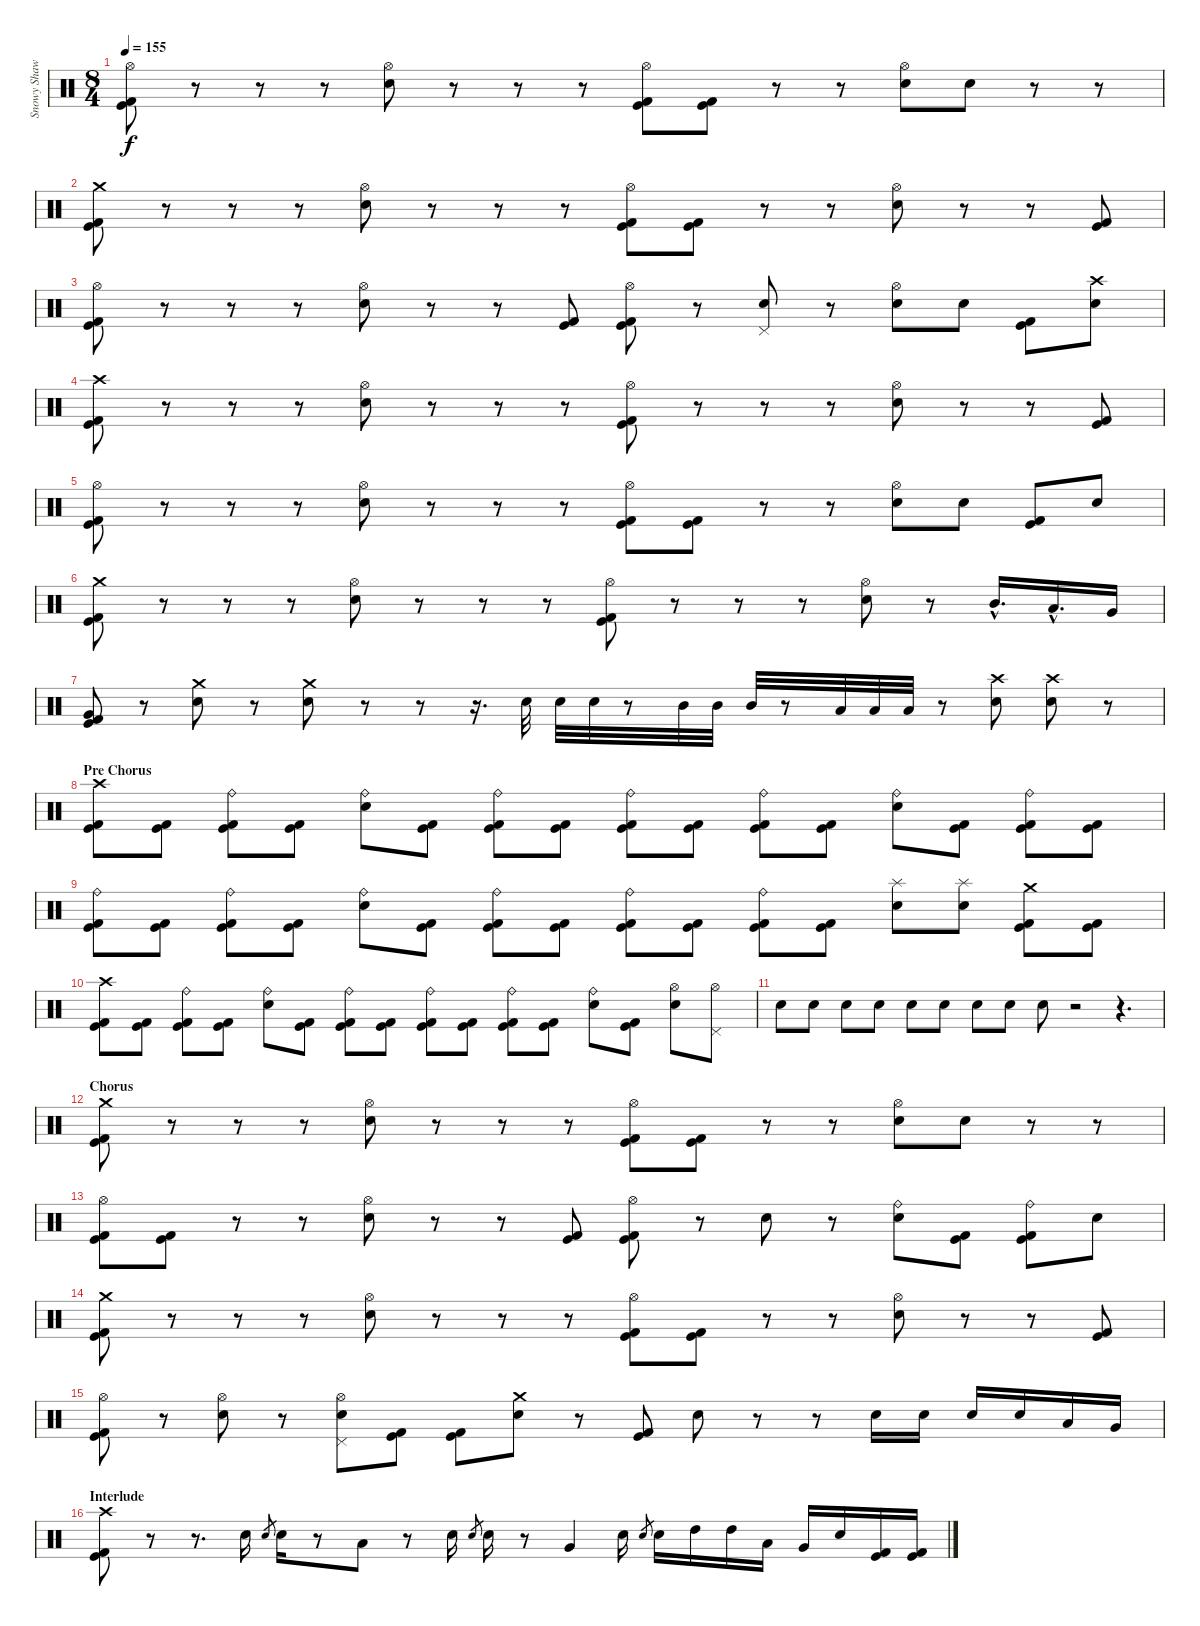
\track ("Snowy Shaw" "Snowy Shaw") {instrument percussion}
\staff {score}
\articulation defaults
\ts (8 4)
\tempo 155
\clef neutral
\ks c
("Hi-Hat (open)" "Kick (hit)" "Kick (hit) 2").8{dy f} r.8 r.8 r.8 ("Hi-Hat (open)" "Electric Snare (hit)").8 r.8 r.8 r.8 ("Hi-Hat (open)" "Kick (hit) 2" "Kick (hit)").8 ("Kick (hit) 2" "Kick (hit)").8 r.8 r.8 ("Hi-Hat (open)" "Electric Snare (hit)").8 "Electric Snare (hit)".8 r.8 r.8 |
("Crash medium (hit)" "Kick (hit)" "Kick (hit) 2").8 r.8 r.8 r.8 ("Hi-Hat (open)" "Electric Snare (hit)").8 r.8 r.8 r.8 ("Hi-Hat (open)" "Kick (hit) 2" "Kick (hit)").8 ("Kick (hit) 2" "Kick (hit)").8 r.8 r.8 ("Hi-Hat (open)" "Electric Snare (hit)").8 r.8 r.8 ("Kick (hit) 2" "Kick (hit)").8 |
("Hi-Hat (open)" "Kick (hit)" "Kick (hit) 2").8 r.8 r.8 r.8 ("Hi-Hat (open)" "Electric Snare (hit)").8 r.8 r.8 ("Kick (hit) 2" "Kick (hit)").8 ("Hi-Hat (open)" "Kick (hit) 2" "Kick (hit)").8 r.8 ("Pedal Hi-Hat (hit)" "Electric Snare (hit)").8 r.8 ("Hi-Hat (open)" "Electric Snare (hit)").8 "Electric Snare (hit)".8 ("Kick (hit) 2" "Kick (hit)").8 ("Crash high (hit)" "Electric Snare (hit)").8 |
("Crash high (hit)" "Kick (hit)" "Kick (hit) 2").8 r.8 r.8 r.8 ("Hi-Hat (open)" "Electric Snare (hit)").8 r.8 r.8 r.8 ("Hi-Hat (open)" "Kick (hit) 2" "Kick (hit)").8 r.8 r.8 r.8 ("Hi-Hat (open)" "Electric Snare (hit)").8 r.8 r.8 ("Kick (hit) 2" "Kick (hit)").8 |
("Hi-Hat (open)" "Kick (hit)" "Kick (hit) 2").8 r.8 r.8 r.8 ("Hi-Hat (open)" "Electric Snare (hit)").8 r.8 r.8 r.8 ("Hi-Hat (open)" "Kick (hit) 2" "Kick (hit)").8 ("Kick (hit) 2" "Kick (hit)").8 r.8 r.8 ("Hi-Hat (open)" "Electric Snare (hit)").8 "Electric Snare (hit)".8 ("Kick (hit) 2" "Kick (hit)").8 "Electric Snare (hit)".8 |
("Crash medium (hit)" "Kick (hit)" "Kick (hit) 2").8 r.8 r.8 r.8 ("Hi-Hat (open)" "Electric Snare (hit)").8 r.8 r.8 r.8 ("Hi-Hat (open)" "Kick (hit) 2" "Kick (hit)").8 r.8 r.8 r.8 ("Hi-Hat (open)" "Electric Snare (hit)").8 r.8 "Mid Tom (hit)"{hac}.16{d} "Low Tom (hit)"{hac}.16{d} "Very Low Tom (hit)".16 |
("Very Low Tom (hit)" "Kick (hit) 2" "Kick (hit)").8 r.8 ("Crash medium (hit)" "Electric Snare (hit)").8 r.8 ("Crash medium (hit)" "Electric Snare (hit)").8 r.8 r.8 r.16{d} "Electric Snare (hit)".32 "Electric Snare (hit)".32 "Electric Snare (hit)".32 r.8 "Mid Tom (hit)".32 "Mid Tom (hit)".32 "Mid Tom (hit)".32 r.8 "Low Tom (hit)".32 "Low Tom (hit)".32 "Low Tom (hit)".32 r.8 ("Crash high (hit)" "Electric Snare (hit)").8 ("Crash high (hit)" "Electric Snare (hit)").8 r.8 |
\section ("" "Pre Chorus")
("Crash high (hit)" "Kick (hit) 2" "Kick (hit)").8 ("Kick (hit) 2" "Kick (hit)").8 ("Ride (bell)" "Kick (hit) 2" "Kick (hit)").8 ("Kick (hit) 2" "Kick (hit)").8 ("Ride (bell)" "Electric Snare (hit)").8 ("Kick (hit) 2" "Kick (hit)").8 ("Ride (bell)" "Kick (hit) 2" "Kick (hit)").8 ("Kick (hit) 2" "Kick (hit)").8 ("Ride (bell)" "Kick (hit) 2" "Kick (hit)").8 ("Kick (hit) 2" "Kick (hit)").8 ("Ride (bell)" "Kick (hit) 2" "Kick (hit)").8 ("Kick (hit) 2" "Kick (hit)").8 ("Ride (bell)" "Electric Snare (hit)").8 ("Kick (hit) 2" "Kick (hit)").8 ("Ride (bell)" "Kick (hit) 2" "Kick (hit)").8 ("Kick (hit) 2" "Kick (hit)").8 |
("Ride (bell)" "Kick (hit) 2" "Kick (hit)").8 ("Kick (hit) 2" "Kick (hit)").8 ("Ride (bell)" "Kick (hit) 2" "Kick (hit)").8 ("Kick (hit) 2" "Kick (hit)").8 ("Ride (bell)" "Electric Snare (hit)").8 ("Kick (hit) 2" "Kick (hit)").8 ("Ride (bell)" "Kick (hit) 2" "Kick (hit)").8 ("Kick (hit) 2" "Kick (hit)").8 ("Ride (bell)" "Kick (hit) 2" "Kick (hit)").8 ("Kick (hit) 2" "Kick (hit)").8 ("Ride (bell)" "Kick (hit) 2" "Kick (hit)").8 ("Kick (hit) 2" "Kick (hit)").8 ("Splash (hit)" "Electric Snare (hit)").8 ("Splash (hit)" "Electric Snare (hit)").8 ("Crash medium (hit)" "Kick (hit) 2" "Kick (hit)").8 ("Kick (hit) 2" "Kick (hit)").8 |
("Crash high (hit)" "Kick (hit) 2" "Kick (hit)").8 ("Kick (hit) 2" "Kick (hit)").8 ("Ride (bell)" "Kick (hit) 2" "Kick (hit)").8 ("Kick (hit) 2" "Kick (hit)").8 ("Ride (bell)" "Electric Snare (hit)").8 ("Kick (hit) 2" "Kick (hit)").8 ("Ride (bell)" "Kick (hit) 2" "Kick (hit)").8 ("Kick (hit) 2" "Kick (hit)").8 ("Ride (bell)" "Kick (hit) 2" "Kick (hit)").8 ("Kick (hit) 2" "Kick (hit)").8 ("Ride (bell)" "Kick (hit) 2" "Kick (hit)").8 ("Kick (hit) 2" "Kick (hit)").8 ("Ride (bell)" "Electric Snare (hit)").8 ("Kick (hit) 2" "Kick (hit)").8 ("Hi-Hat (open)" "Electric Snare (hit)").8 ("Hi-Hat (open)" "Pedal Hi-Hat (hit)").8 |
"Electric Snare (hit)".8 "Electric Snare (hit)".8 "Electric Snare (hit)".8 "Electric Snare (hit)".8 "Electric Snare (hit)".8 "Electric Snare (hit)".8 "Electric Snare (hit)".8 "Electric Snare (hit)".8 "Electric Snare (hit)".8 r.2 r.4{d} |
\section ("" "Chorus")
("Crash medium (hit)" "Kick (hit)" "Kick (hit) 2").8 r.8 r.8 r.8 ("Hi-Hat (open)" "Electric Snare (hit)").8 r.8 r.8 r.8 ("Hi-Hat (open)" "Kick (hit) 2" "Kick (hit)").8 ("Kick (hit) 2" "Kick (hit)").8 r.8 r.8 ("Hi-Hat (open)" "Electric Snare (hit)").8 "Electric Snare (hit)".8 r.8 r.8 |
("Hi-Hat (open)" "Kick (hit)" "Kick (hit) 2").8 ("Kick (hit) 2" "Kick (hit)").8 r.8 r.8 ("Hi-Hat (open)" "Electric Snare (hit)").8 r.8 r.8 ("Kick (hit) 2" "Kick (hit)").8 ("Hi-Hat (open)" "Kick (hit) 2" "Kick (hit)").8 r.8 "Electric Snare (hit)".8 r.8 ("Ride (bell)" "Electric Snare (hit)").8 ("Kick (hit) 2" "Kick (hit)").8 ("Ride (bell)" "Kick (hit) 2" "Kick (hit)").8 "Electric Snare (hit)".8 |
("Crash medium (hit)" "Kick (hit)" "Kick (hit) 2").8 r.8 r.8 r.8 ("Hi-Hat (open)" "Electric Snare (hit)").8 r.8 r.8 r.8 ("Hi-Hat (open)" "Kick (hit) 2" "Kick (hit)").8 ("Kick (hit) 2" "Kick (hit)").8 r.8 r.8 ("Hi-Hat (open)" "Electric Snare (hit)").8 r.8 r.8 ("Kick (hit) 2" "Kick (hit)").8 |
("Hi-Hat (open)" "Kick (hit)" "Kick (hit) 2").8 r.8 ("Hi-Hat (open)" "Electric Snare (hit)").8 r.8 ("Hi-Hat (open)" "Pedal Hi-Hat (hit)" "Electric Snare (hit)").8 ("Kick (hit) 2" "Kick (hit)").8 ("Kick (hit) 2" "Kick (hit)").8 ("Crash medium (hit)" "Electric Snare (hit)").8 r.8 ("Kick (hit)" "Kick (hit) 2").8 "Electric Snare (hit)".8 r.8 r.8 "Electric Snare (hit)".16 "Electric Snare (hit)".16 "Electric Snare (hit)".16 "Electric Snare (hit)".16 "Low Tom (hit)".16 "Very Low Tom (hit)".16 |
\section ("" "Interlude")
("Crash high (hit)" "Kick (hit)" "Kick (hit) 2").8 r.8 r.8{d} "Electric Snare (hit)".16 "Electric Snare (hit)".8{gr} "Electric Snare (hit)".16 r.8 "Low Tom (hit)".8 r.8 "Electric Snare (hit)".16 "Electric Snare (hit)".8{gr} "Electric Snare (hit)".16 r.8 "Very Low Tom (hit)".4 "Electric Snare (hit)".16 "Electric Snare (hit)".8{gr} "Electric Snare (hit)".16 "High Tom (hit)".16 "High Tom (hit)".16 "Low Tom (hit)".16 "Very Low Tom (hit)".16 "Electric Snare (hit)".16 ("Kick (hit)" "Kick (hit) 2").16 ("Kick (hit) 2" "Kick (hit)").16
